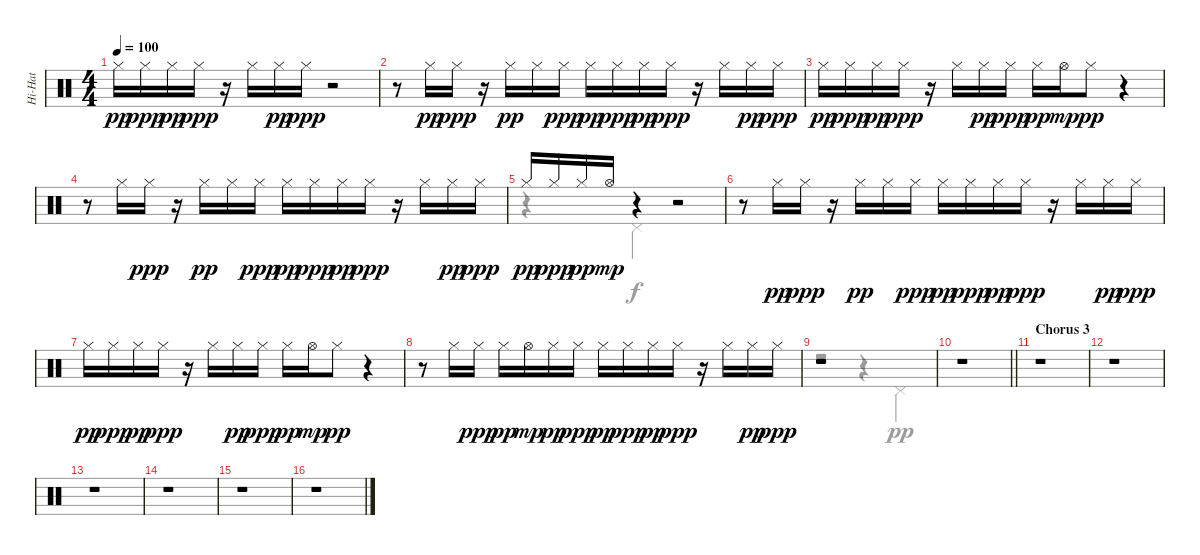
\track ("Hi-Hat" "Hi-Hat") {instrument percussion}
\staff {score}
\articulation defaults
\voice
\ts (4 4)
\tempo 100
\clef neutral
\ks c "Hi-Hat (closed)".16{dy pp} "Hi-Hat (closed)".16{dy ppp} "Hi-Hat (closed)".16{dy pp} "Hi-Hat (closed)".16{dy ppp}
r.16 "Hi-Hat (closed)".16 "Hi-Hat (closed)".16{dy pp} "Hi-Hat (closed)".16{dy ppp} r.2 |
r.8 "Hi-Hat (closed)".16{dy pp} "Hi-Hat (closed)".16{dy ppp} r.16 "Hi-Hat (closed)".16{dy pp} "Hi-Hat (closed)".16 "Hi-Hat (closed)".16{dy ppp} "Hi-Hat (closed)".16{dy pp} "Hi-Hat (closed)".16{dy ppp} "Hi-Hat (closed)".16{dy pp} "Hi-Hat (closed)".16{dy ppp} r.16 "Hi-Hat (closed)".16 "Hi-Hat (closed)".16{dy pp} "Hi-Hat (closed)".16{dy ppp} |
"Hi-Hat (closed)".16{dy pp} "Hi-Hat (closed)".16{dy ppp} "Hi-Hat (closed)".16{dy pp} "Hi-Hat (closed)".16{dy ppp} r.16 "Hi-Hat (closed)".16 "Hi-Hat (closed)".16{dy pp} "Hi-Hat (closed)".16{dy ppp} "Hi-Hat (closed)".16{dy pp} "Hi-Hat (open)".16{dy mp} "Hi-Hat (closed)".8{dy pp} r.4 |
r.8 "Hi-Hat (closed)".16 "Hi-Hat (closed)".16{dy ppp} r.16 "Hi-Hat (closed)".16{dy pp} "Hi-Hat (closed)".16 "Hi-Hat (closed)".16{dy ppp} "Hi-Hat (closed)".16{dy pp} "Hi-Hat (closed)".16{dy ppp} "Hi-Hat (closed)".16{dy pp} "Hi-Hat (closed)".16{dy ppp} r.16 "Hi-Hat (closed)".16 "Hi-Hat (closed)".16{dy pp} "Hi-Hat (closed)".16{dy ppp} |
"Hi-Hat (closed)".16{dy pp} "Hi-Hat (closed)".16{dy ppp} "Hi-Hat (closed)".16{dy pp} "Hi-Hat (open)".16{dy mp} r.4 r.2 |
r.8 "Hi-Hat (closed)".16{dy pp} "Hi-Hat (closed)".16{dy ppp} r.16 "Hi-Hat (closed)".16{dy pp} "Hi-Hat (closed)".16 "Hi-Hat (closed)".16{dy ppp} "Hi-Hat (closed)".16{dy pp} "Hi-Hat (closed)".16{dy ppp} "Hi-Hat (closed)".16{dy pp} "Hi-Hat (closed)".16{dy ppp} r.16 "Hi-Hat (closed)".16 "Hi-Hat (closed)".16{dy pp} "Hi-Hat (closed)".16{dy ppp} |
"Hi-Hat (closed)".16{dy pp} "Hi-Hat (closed)".16{dy ppp} "Hi-Hat (closed)".16{dy pp} "Hi-Hat (closed)".16{dy ppp} r.16 "Hi-Hat (closed)".16 "Hi-Hat (closed)".16{dy pp} "Hi-Hat (closed)".16{dy ppp} "Hi-Hat (closed)".16{dy pp} "Hi-Hat (open)".16{dy mp} "Hi-Hat (closed)".8{dy pp} r.4 |
r.8 "Hi-Hat (closed)".16 "Hi-Hat (closed)".16{dy ppp} "Hi-Hat (closed)".16{dy pp} "Hi-Hat (open)".16{dy mp} "Hi-Hat (closed)".16{dy pp} "Hi-Hat (closed)".16{dy ppp} "Hi-Hat (closed)".16{dy pp} "Hi-Hat (closed)".16{dy ppp} "Hi-Hat (closed)".16{dy pp} "Hi-Hat (closed)".16{dy ppp} r.16 "Hi-Hat (closed)".16 "Hi-Hat (closed)".16{dy pp} "Hi-Hat (closed)".16{dy ppp} |
r.1 |
\barLineRight lightlight
r.1 |
\section ("" "Chorus 3")
r.1 |
r.1 |
r.1 |
r.1 |
r.1 |
r.1
\voice
\clef neutral
\ottava regular
\simile none
\ks c
|
|
|
|
r.4 "Pedal Hi-Hat (hit)".4{dy f} r.2 |
|
|
|
r.2 r.4 "Pedal Hi-Hat (hit)".4{dy pp} |
\barLineRight lightlight
|
|
|
|
|
|
